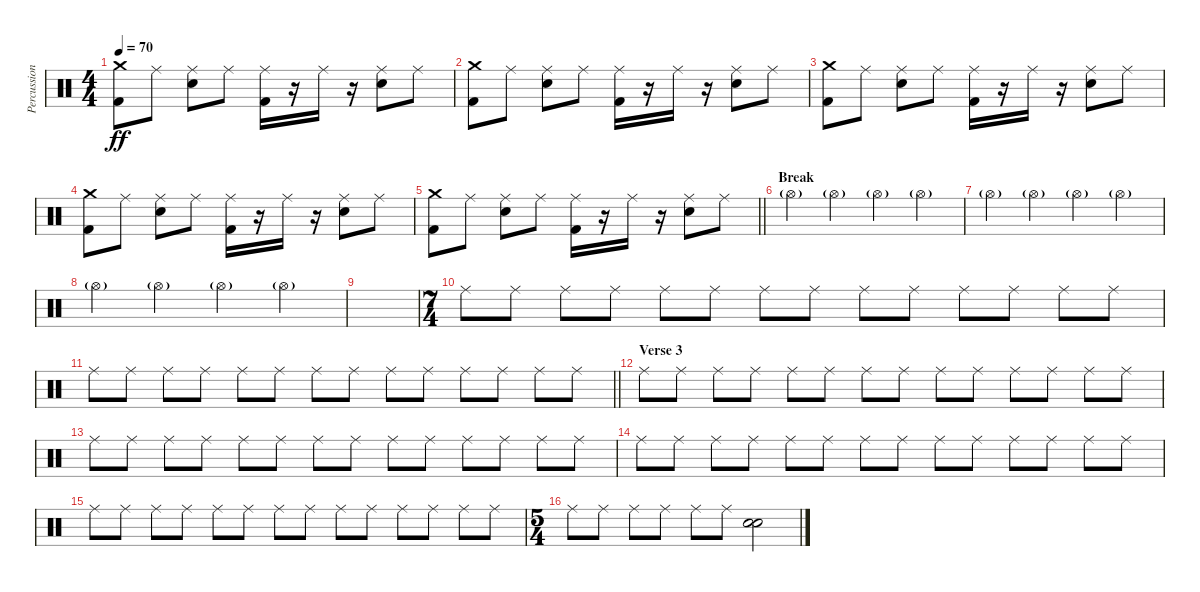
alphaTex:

\track ("Percussion" "Percussion") {instrument percussion}
\staff {score}
\articulation defaults
\ts (4 4)
\tempo 70
\clef neutral
\ks c
("Crash medium (hit)" "Kick (hit) 2").8{dy ff} "Ride (middle)".8 ("Ride (middle)" "Electric Snare (hit)").8 "Ride (middle)".8 ("Ride (middle)" "Kick (hit) 2").16 r.16 "Ride (middle)".16 r.16 ("Ride (middle)" "Electric Snare (hit)").8 "Ride (middle)".8 |
("Crash medium (hit)" "Kick (hit) 2").8 "Ride (middle)".8 ("Ride (middle)" "Electric Snare (hit)").8 "Ride (middle)".8 ("Ride (middle)" "Kick (hit) 2").16 r.16 "Ride (middle)".16 r.16 ("Ride (middle)" "Electric Snare (hit)").8 "Ride (middle)".8 |
("Crash medium (hit)" "Kick (hit) 2").8 "Ride (middle)".8 ("Ride (middle)" "Electric Snare (hit)").8 "Ride (middle)".8 ("Ride (middle)" "Kick (hit) 2").16 r.16 "Ride (middle)".16 r.16 ("Ride (middle)" "Electric Snare (hit)").8 "Ride (middle)".8 |
("Crash medium (hit)" "Kick (hit) 2").8 "Ride (middle)".8 ("Ride (middle)" "Electric Snare (hit)").8 "Ride (middle)".8 ("Ride (middle)" "Kick (hit) 2").16 r.16 "Ride (middle)".16 r.16 ("Ride (middle)" "Electric Snare (hit)").8 "Ride (middle)".8 |
\barLineRight lightlight
("Crash medium (hit)" "Kick (hit) 2").8 "Ride (middle)".8 ("Ride (middle)" "Electric Snare (hit)").8 "Ride (middle)".8 ("Ride (middle)" "Kick (hit) 2").16 r.16 "Ride (middle)".16 r.16 ("Ride (middle)" "Electric Snare (hit)").8 "Ride (middle)".8 |
\section ("" "Break")
"Hi-Hat (open)"{g}.4 "Hi-Hat (open)"{g}.4 "Hi-Hat (open)"{g}.4 "Hi-Hat (open)"{g}.4 |
"Hi-Hat (open)"{g}.4 "Hi-Hat (open)"{g}.4 "Hi-Hat (open)"{g}.4 "Hi-Hat (open)"{g}.4 |
"Hi-Hat (open)"{g}.4 "Hi-Hat (open)"{g}.4 "Hi-Hat (open)"{g}.4 "Hi-Hat (open)"{g}.4 |
|
\ts (7 4)
"Ride (middle)".8 "Ride (middle)".8 "Ride (middle)".8 "Ride (middle)".8 "Ride (middle)".8 "Ride (middle)".8 "Ride (middle)".8 "Ride (middle)".8 "Ride (middle)".8 "Ride (middle)".8 "Ride (middle)".8 "Ride (middle)".8 "Ride (middle)".8 "Ride (middle)".8 |
\barLineRight lightlight "Ride (middle)".8 "Ride (middle)".8 "Ride (middle)".8 "Ride (middle)".8 "Ride (middle)".8 "Ride (middle)".8 "Ride (middle)".8 "Ride (middle)".8 "Ride (middle)".8 "Ride (middle)".8 "Ride (middle)".8 "Ride (middle)".8 "Ride (middle)".8 "Ride (middle)".8
|
\section ("" "Verse 3")
"Ride (middle)".8 "Ride (middle)".8 "Ride (middle)".8 "Ride (middle)".8 "Ride (middle)".8 "Ride (middle)".8 "Ride (middle)".8 "Ride (middle)".8 "Ride (middle)".8 "Ride (middle)".8 "Ride (middle)".8 "Ride (middle)".8 "Ride (middle)".8 "Ride (middle)".8 |
"Ride (middle)".8 "Ride (middle)".8 "Ride (middle)".8 "Ride (middle)".8 "Ride (middle)".8 "Ride (middle)".8 "Ride (middle)".8 "Ride (middle)".8 "Ride (middle)".8 "Ride (middle)".8 "Ride (middle)".8 "Ride (middle)".8 "Ride (middle)".8 "Ride (middle)".8 |
"Ride (middle)".8 "Ride (middle)".8 "Ride (middle)".8 "Ride (middle)".8 "Ride (middle)".8 "Ride (middle)".8 "Ride (middle)".8 "Ride (middle)".8 "Ride (middle)".8 "Ride (middle)".8 "Ride (middle)".8 "Ride (middle)".8 "Ride (middle)".8 "Ride (middle)".8 |
"Ride (middle)".8 "Ride (middle)".8 "Ride (middle)".8 "Ride (middle)".8 "Ride (middle)".8 "Ride (middle)".8 "Ride (middle)".8 "Ride (middle)".8 "Ride (middle)".8 "Ride (middle)".8 "Ride (middle)".8 "Ride (middle)".8 "Ride (middle)".8 "Ride (middle)".8 |
\ts (5 4)
"Ride (middle)".8 "Ride (middle)".8 "Ride (middle)".8 "Ride (middle)".8 "Ride (middle)".8 "Ride (middle)".8 ("Electric Snare (hit)" "Electric Snare (hit)").2
